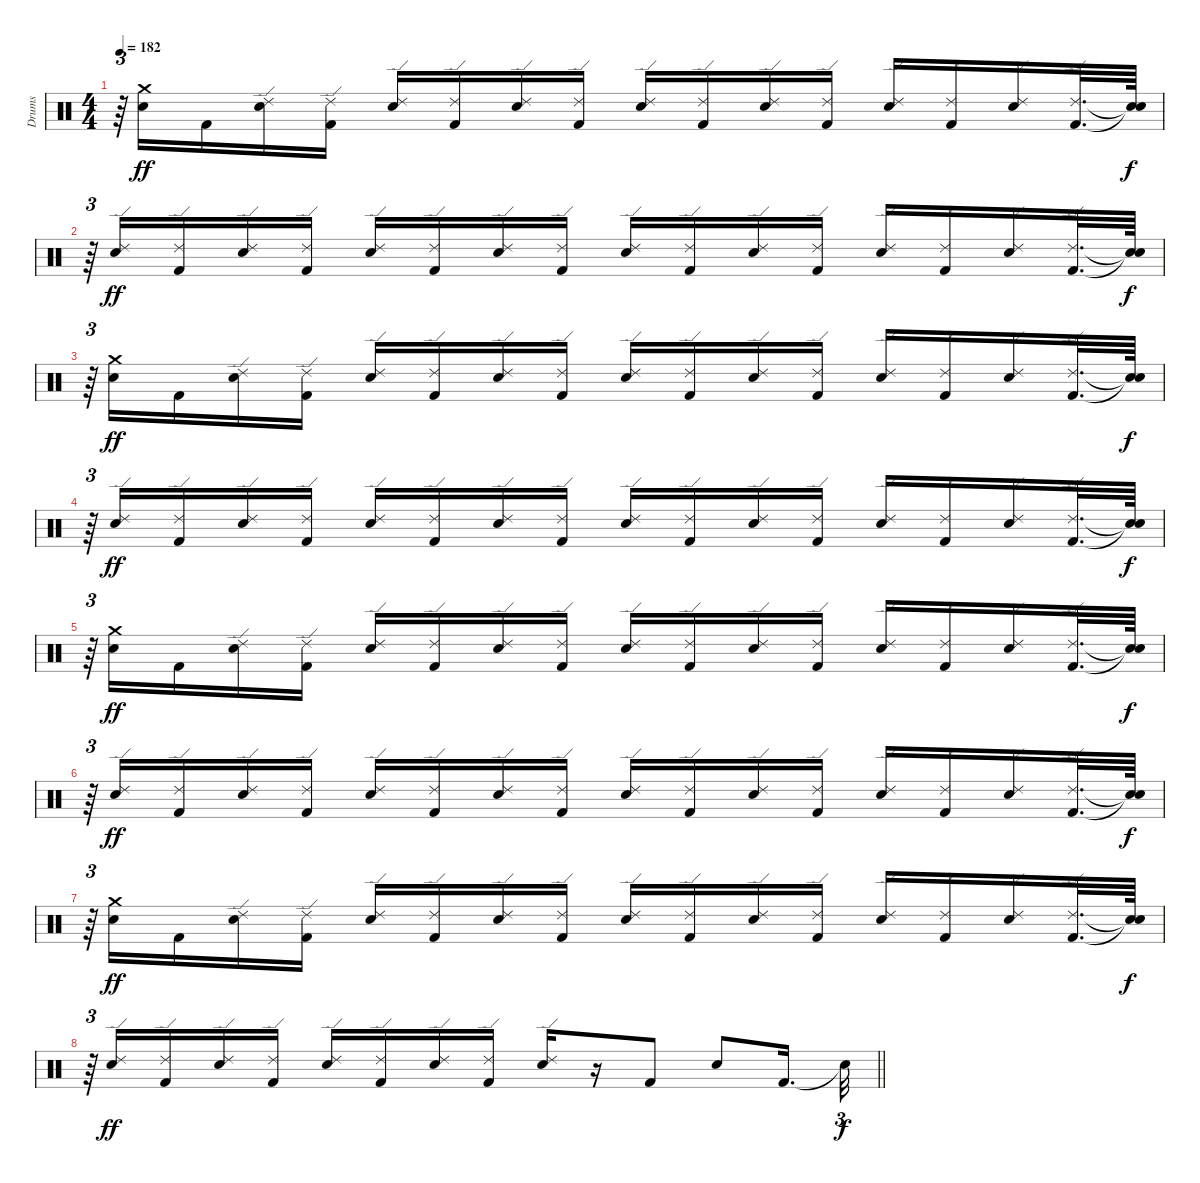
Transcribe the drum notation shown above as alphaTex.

\track ("Drums" "Drums") {instrument percussion}
\staff {score}
\articulation defaults
\ts (4 4)
\tempo 182
\clef neutral
\ks c
r.64{tu (3 2) dy f} ("Crash medium (hit)" "Snare (hit) 2").16{dy ff} "Kick (hit) 2".16 ("Snare (hit) 2" "Ride (edge) 2").16 ("Kick (hit) 2" "Ride (edge) 2").16 ("Snare (hit) 2" "Ride (edge) 2").16 ("Kick (hit) 2" "Ride (edge) 2").16 ("Snare (hit) 2" "Ride (edge) 2").16 ("Kick (hit) 2" "Ride (edge) 2").16 ("Snare (hit) 2" "Ride (edge) 2").16 ("Kick (hit) 2" "Ride (edge) 2").16 ("Snare (hit) 2" "Ride (edge) 2").16 ("Kick (hit) 2" "Ride (edge) 2").16 ("Snare (hit) 2" "Ride (edge) 2").16 ("Kick (hit) 2" "Ride (edge) 2").16 ("Snare (hit) 2" "Ride (edge) 2").16 ("Kick (hit) 2" "Ride (edge) 2").32{d} ("Snare (hit)"{t} "Snare (hit)"{t}).64{dy f} |
r.64{tu (3 2)} ("Snare (hit) 2" "Ride (edge) 2").16{dy ff} ("Kick (hit) 2" "Ride (edge) 2").16 ("Snare (hit) 2" "Ride (edge) 2").16 ("Kick (hit) 2" "Ride (edge) 2").16 ("Snare (hit) 2" "Ride (edge) 2").16 ("Kick (hit) 2" "Ride (edge) 2").16 ("Snare (hit) 2" "Ride (edge) 2").16 ("Kick (hit) 2" "Ride (edge) 2").16 ("Snare (hit) 2" "Ride (edge) 2").16 ("Kick (hit) 2" "Ride (edge) 2").16 ("Snare (hit) 2" "Ride (edge) 2").16 ("Kick (hit) 2" "Ride (edge) 2").16 ("Snare (hit) 2" "Ride (edge) 2").16 ("Kick (hit) 2" "Ride (edge) 2").16 ("Snare (hit) 2" "Ride (edge) 2").16 ("Kick (hit) 2" "Ride (edge) 2").32{d} ("Snare (hit)"{t} "Snare (hit)"{t}).64{dy f} |
r.64{tu (3 2)} ("Crash medium (hit)" "Snare (hit) 2").16{dy ff} "Kick (hit) 2".16 ("Snare (hit) 2" "Ride (edge) 2").16 ("Kick (hit) 2" "Ride (edge) 2").16 ("Snare (hit) 2" "Ride (edge) 2").16 ("Kick (hit) 2" "Ride (edge) 2").16 ("Snare (hit) 2" "Ride (edge) 2").16 ("Kick (hit) 2" "Ride (edge) 2").16 ("Snare (hit) 2" "Ride (edge) 2").16 ("Kick (hit) 2" "Ride (edge) 2").16 ("Snare (hit) 2" "Ride (edge) 2").16 ("Kick (hit) 2" "Ride (edge) 2").16 ("Snare (hit) 2" "Ride (edge) 2").16 ("Kick (hit) 2" "Ride (edge) 2").16 ("Snare (hit) 2" "Ride (edge) 2").16 ("Kick (hit) 2" "Ride (edge) 2").32{d} ("Snare (hit)"{t} "Snare (hit)"{t}).64{dy f} |
r.64{tu (3 2)} ("Snare (hit) 2" "Ride (edge) 2").16{dy ff} ("Kick (hit) 2" "Ride (edge) 2").16 ("Snare (hit) 2" "Ride (edge) 2").16 ("Kick (hit) 2" "Ride (edge) 2").16 ("Snare (hit) 2" "Ride (edge) 2").16 ("Kick (hit) 2" "Ride (edge) 2").16 ("Snare (hit) 2" "Ride (edge) 2").16 ("Kick (hit) 2" "Ride (edge) 2").16 ("Snare (hit) 2" "Ride (edge) 2").16 ("Kick (hit) 2" "Ride (edge) 2").16 ("Snare (hit) 2" "Ride (edge) 2").16 ("Kick (hit) 2" "Ride (edge) 2").16 ("Snare (hit) 2" "Ride (edge) 2").16 ("Kick (hit) 2" "Ride (edge) 2").16 ("Snare (hit) 2" "Ride (edge) 2").16 ("Kick (hit) 2" "Ride (edge) 2").32{d} ("Snare (hit)"{t} "Snare (hit)"{t}).64{dy f} |
r.64{tu (3 2)} ("Crash medium (hit)" "Snare (hit) 2").16{dy ff} "Kick (hit) 2".16 ("Snare (hit) 2" "Ride (edge) 2").16 ("Kick (hit) 2" "Ride (edge) 2").16 ("Snare (hit) 2" "Ride (edge) 2").16 ("Kick (hit) 2" "Ride (edge) 2").16 ("Snare (hit) 2" "Ride (edge) 2").16 ("Kick (hit) 2" "Ride (edge) 2").16 ("Snare (hit) 2" "Ride (edge) 2").16 ("Kick (hit) 2" "Ride (edge) 2").16 ("Snare (hit) 2" "Ride (edge) 2").16 ("Kick (hit) 2" "Ride (edge) 2").16 ("Snare (hit) 2" "Ride (edge) 2").16 ("Kick (hit) 2" "Ride (edge) 2").16 ("Snare (hit) 2" "Ride (edge) 2").16 ("Kick (hit) 2" "Ride (edge) 2").32{d} ("Snare (hit)"{t} "Snare (hit)"{t}).64{dy f} |
r.64{tu (3 2)} ("Snare (hit) 2" "Ride (edge) 2").16{dy ff} ("Kick (hit) 2" "Ride (edge) 2").16 ("Snare (hit) 2" "Ride (edge) 2").16 ("Kick (hit) 2" "Ride (edge) 2").16 ("Snare (hit) 2" "Ride (edge) 2").16 ("Kick (hit) 2" "Ride (edge) 2").16 ("Snare (hit) 2" "Ride (edge) 2").16 ("Kick (hit) 2" "Ride (edge) 2").16 ("Snare (hit) 2" "Ride (edge) 2").16 ("Kick (hit) 2" "Ride (edge) 2").16 ("Snare (hit) 2" "Ride (edge) 2").16 ("Kick (hit) 2" "Ride (edge) 2").16 ("Snare (hit) 2" "Ride (edge) 2").16 ("Kick (hit) 2" "Ride (edge) 2").16 ("Snare (hit) 2" "Ride (edge) 2").16 ("Kick (hit) 2" "Ride (edge) 2").32{d} ("Snare (hit)"{t} "Snare (hit)"{t}).64{dy f} |
r.64{tu (3 2)} ("Crash medium (hit)" "Snare (hit) 2").16{dy ff} "Kick (hit) 2".16 ("Snare (hit) 2" "Ride (edge) 2").16 ("Kick (hit) 2" "Ride (edge) 2").16 ("Snare (hit) 2" "Ride (edge) 2").16 ("Kick (hit) 2" "Ride (edge) 2").16 ("Snare (hit) 2" "Ride (edge) 2").16 ("Kick (hit) 2" "Ride (edge) 2").16 ("Snare (hit) 2" "Ride (edge) 2").16 ("Kick (hit) 2" "Ride (edge) 2").16 ("Snare (hit) 2" "Ride (edge) 2").16 ("Kick (hit) 2" "Ride (edge) 2").16 ("Snare (hit) 2" "Ride (edge) 2").16 ("Kick (hit) 2" "Ride (edge) 2").16 ("Snare (hit) 2" "Ride (edge) 2").16 ("Kick (hit) 2" "Ride (edge) 2").32{d} ("Snare (hit)"{t} "Snare (hit)"{t}).64{dy f} |
\barLineRight lightlight
r.64{tu (3 2)} ("Snare (hit) 2" "Ride (edge) 2").16{dy ff} ("Kick (hit) 2" "Ride (edge) 2").16 ("Snare (hit) 2" "Ride (edge) 2").16 ("Kick (hit) 2" "Ride (edge) 2").16 ("Snare (hit) 2" "Ride (edge) 2").16 ("Kick (hit) 2" "Ride (edge) 2").16 ("Snare (hit) 2" "Ride (edge) 2").16 ("Kick (hit) 2" "Ride (edge) 2").16 ("Snare (hit) 2" "Ride (edge) 2").16 r.16 "Kick (hit) 2".8 "Snare (hit) 2".8 "Kick (hit) 2".16{d} "Snare (hit)"{t}.32{tu (3 2) dy f}
